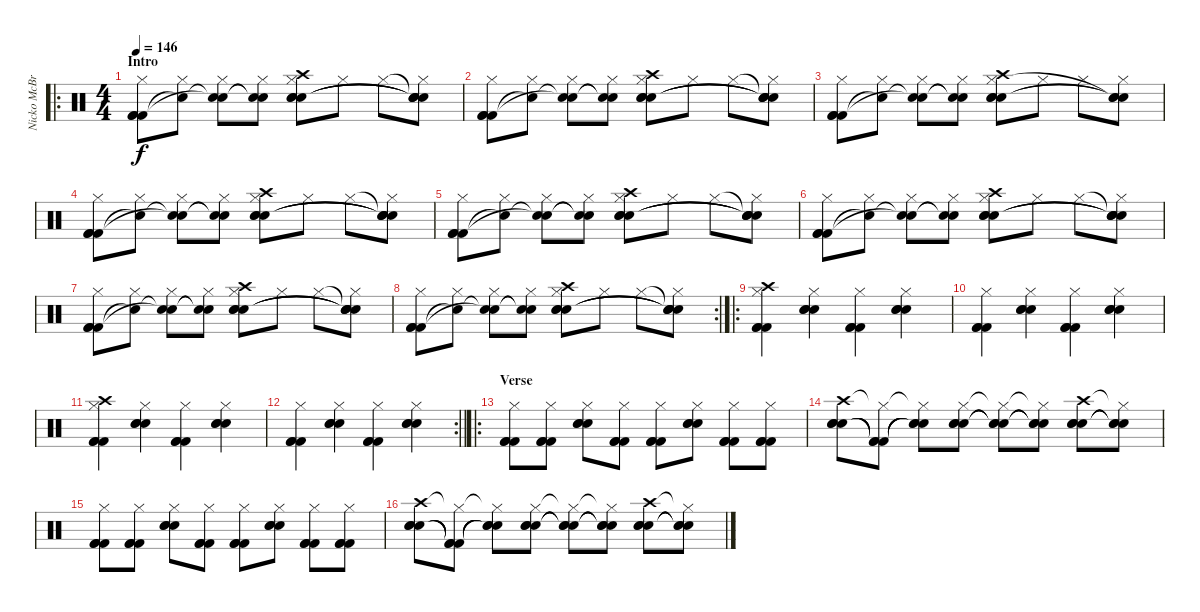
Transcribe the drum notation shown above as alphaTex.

\track ("Nicko McBrain" "Nicko McBr") {instrument percussion}
\staff {score}
\articulation defaults
\ro
\ts (4 4)
\section ("" "Intro")
\tempo 146
\clef neutral
\ks c
("Hi-Hat (closed)" "Kick (hit) 2" "Kick (hit) 2" "Kick (hit) 2").8{dy f} ("Hi-Hat (closed)" "Snare (hit)"{t}).8 ("Hi-Hat (closed)" "Snare (hit)"{t} "Snare (hit)"{t}).8 ("Hi-Hat (closed)" "Snare (hit)"{t} "Snare (hit)"{t}).8 ("Crash high (hit)" "Hi-Hat (closed)" "Snare (hit) 2" "Snare (hit) 2" "Snare (hit) 2").8 "Hi-Hat (closed)".8 "Hi-Hat (closed)".8 ("Snare (hit)"{t} "Hi-Hat (closed)" "Snare (hit)"{t} "Snare (hit)"{t} "Snare (hit)"{t}).8 |
("Hi-Hat (closed)" "Kick (hit) 2" "Kick (hit) 2" "Kick (hit) 2").8 ("Hi-Hat (closed)" "Snare (hit)"{t}).8 ("Hi-Hat (closed)" "Snare (hit)"{t} "Snare (hit)"{t}).8 ("Hi-Hat (closed)" "Snare (hit)"{t} "Snare (hit)"{t}).8 ("Crash high (hit)" "Hi-Hat (closed)" "Snare (hit) 2" "Snare (hit) 2" "Snare (hit) 2").8 "Hi-Hat (closed)".8 "Hi-Hat (closed)".8 ("Snare (hit)"{t} "Hi-Hat (closed)" "Snare (hit)"{t} "Snare (hit)"{t} "Snare (hit)"{t}).8 |
("Hi-Hat (closed)" "Kick (hit) 2" "Kick (hit) 2" "Kick (hit) 2").8 ("Hi-Hat (closed)" "Snare (hit)"{t}).8 ("Hi-Hat (closed)" "Snare (hit)"{t} "Snare (hit)"{t}).8 ("Hi-Hat (closed)" "Snare (hit)"{t} "Snare (hit)"{t}).8 ("Crash high (hit)" "Hi-Hat (closed)" "Snare (hit) 2" "Snare (hit) 2" "Snare (hit) 2").8 "Hi-Hat (closed)".8 "Hi-Hat (closed)".8 ("Hi-Hat (closed)" "Snare (hit)"{t} "Snare (hit)"{t} "Snare (hit)"{t}).8 |
("Hi-Hat (closed)" "Kick (hit) 2" "Kick (hit) 2" "Kick (hit) 2").8 ("Hi-Hat (closed)" "Snare (hit)"{t}).8 ("Hi-Hat (closed)" "Snare (hit)"{t} "Snare (hit)"{t}).8 ("Hi-Hat (closed)" "Snare (hit)"{t} "Snare (hit)"{t}).8 ("Crash high (hit)" "Hi-Hat (closed)" "Snare (hit) 2" "Snare (hit) 2" "Snare (hit) 2").8 "Hi-Hat (closed)".8 "Hi-Hat (closed)".8 ("Snare (hit)"{t} "Hi-Hat (closed)" "Snare (hit)"{t} "Snare (hit)"{t} "Snare (hit)"{t}).8 |
("Hi-Hat (closed)" "Kick (hit) 2" "Kick (hit) 2" "Kick (hit) 2").8 ("Hi-Hat (closed)" "Snare (hit)"{t}).8 ("Hi-Hat (closed)" "Snare (hit)"{t} "Snare (hit)"{t}).8 ("Hi-Hat (closed)" "Snare (hit)"{t} "Snare (hit)"{t}).8 ("Crash high (hit)" "Hi-Hat (closed)" "Snare (hit) 2" "Snare (hit) 2" "Snare (hit) 2").8 "Hi-Hat (closed)".8 "Hi-Hat (closed)".8 ("Snare (hit)"{t} "Hi-Hat (closed)" "Snare (hit)"{t} "Snare (hit)"{t} "Snare (hit)"{t}).8 |
("Hi-Hat (closed)" "Kick (hit) 2" "Kick (hit) 2" "Kick (hit) 2").8 ("Hi-Hat (closed)" "Snare (hit)"{t}).8 ("Hi-Hat (closed)" "Snare (hit)"{t} "Snare (hit)"{t}).8 ("Hi-Hat (closed)" "Snare (hit)"{t} "Snare (hit)"{t}).8 ("Crash high (hit)" "Hi-Hat (closed)" "Snare (hit) 2" "Snare (hit) 2" "Snare (hit) 2").8 "Hi-Hat (closed)".8 "Hi-Hat (closed)".8 ("Snare (hit)"{t} "Hi-Hat (closed)" "Snare (hit)"{t} "Snare (hit)"{t} "Snare (hit)"{t}).8 |
("Hi-Hat (closed)" "Kick (hit) 2" "Kick (hit) 2" "Kick (hit) 2").8 ("Hi-Hat (closed)" "Snare (hit)"{t}).8 ("Hi-Hat (closed)" "Snare (hit)"{t} "Snare (hit)"{t}).8 ("Hi-Hat (closed)" "Snare (hit)"{t} "Snare (hit)"{t}).8 ("Crash high (hit)" "Hi-Hat (closed)" "Snare (hit) 2" "Snare (hit) 2" "Snare (hit) 2").8 "Hi-Hat (closed)".8 "Hi-Hat (closed)".8 ("Snare (hit)"{t} "Hi-Hat (closed)" "Snare (hit)"{t} "Snare (hit)"{t} "Snare (hit)"{t}).8 |
\rc 2
("Hi-Hat (closed)" "Kick (hit) 2" "Kick (hit) 2" "Kick (hit) 2").8 ("Hi-Hat (closed)" "Snare (hit)"{t}).8 ("Hi-Hat (closed)" "Snare (hit)"{t} "Snare (hit)"{t}).8 ("Hi-Hat (closed)" "Snare (hit)"{t} "Snare (hit)"{t}).8 ("Crash high (hit)" "Hi-Hat (closed)" "Snare (hit) 2" "Snare (hit) 2" "Snare (hit) 2").8 "Hi-Hat (closed)".8 "Hi-Hat (closed)".8 ("Snare (hit)"{t} "Hi-Hat (closed)" "Snare (hit)"{t} "Snare (hit)"{t} "Snare (hit)"{t}).8 |
\ro
("Crash high (hit)" "Hi-Hat (closed)" "Kick (hit) 2" "Kick (hit) 2" "Kick (hit) 2").4 ("Hi-Hat (closed)" "Snare (hit) 2" "Snare (hit) 2" "Snare (hit) 2").4 ("Hi-Hat (closed)" "Kick (hit) 2" "Kick (hit) 2" "Kick (hit) 2").4 ("Hi-Hat (closed)" "Snare (hit) 2" "Snare (hit) 2" "Snare (hit) 2").4 |
("Hi-Hat (closed)" "Kick (hit) 2" "Kick (hit) 2" "Kick (hit) 2").4 ("Hi-Hat (closed)" "Snare (hit) 2" "Snare (hit) 2" "Snare (hit) 2").4 ("Hi-Hat (closed)" "Kick (hit) 2" "Kick (hit) 2" "Kick (hit) 2").4 ("Hi-Hat (closed)" "Snare (hit) 2" "Snare (hit) 2" "Snare (hit) 2").4 |
("Crash high (hit)" "Hi-Hat (closed)" "Kick (hit) 2" "Kick (hit) 2" "Kick (hit) 2").4 ("Hi-Hat (closed)" "Snare (hit) 2" "Snare (hit) 2" "Snare (hit) 2").4 ("Hi-Hat (closed)" "Kick (hit) 2" "Kick (hit) 2" "Kick (hit) 2").4 ("Hi-Hat (closed)" "Snare (hit) 2" "Snare (hit) 2" "Snare (hit) 2").4 |
\rc 2
\barLineRight lightlight
("Hi-Hat (closed)" "Kick (hit) 2" "Kick (hit) 2" "Kick (hit) 2").4 ("Hi-Hat (closed)" "Snare (hit) 2" "Snare (hit) 2" "Snare (hit) 2").4 ("Hi-Hat (closed)" "Kick (hit) 2" "Kick (hit) 2" "Kick (hit) 2").4 ("Hi-Hat (closed)" "Snare (hit) 2" "Snare (hit) 2" "Snare (hit) 2").4 |
\ro
\section ("" "Verse")
("Hi-Hat (closed)" "Kick (hit) 2" "Kick (hit) 2" "Kick (hit) 2").8 ("Hi-Hat (closed)" "Kick (hit) 2" "Kick (hit) 2" "Kick (hit) 2").8 ("Hi-Hat (closed)" "Snare (hit) 2" "Snare (hit) 2" "Snare (hit) 2").8 ("Hi-Hat (closed)" "Kick (hit) 2" "Kick (hit) 2" "Kick (hit) 2").8 ("Hi-Hat (closed)" "Kick (hit) 2" "Kick (hit) 2" "Kick (hit) 2").8 ("Hi-Hat (closed)" "Snare (hit) 2" "Snare (hit) 2" "Snare (hit) 2").8 ("Hi-Hat (closed)" "Kick (hit) 2" "Kick (hit) 2" "Kick (hit) 2").8 ("Hi-Hat (closed)" "Kick (hit) 2" "Kick (hit) 2" "Kick (hit) 2").8 |
("Crash high (hit)" "Snare (hit) 2" "Snare (hit) 2" "Snare (hit) 2").8 ("Hi-Hat (closed)"{t} "Kick (hit) 2"{t} "Kick (hit) 2"{t} "Kick (hit) 2"{t}).8 ("Hi-Hat (closed)"{t} "Snare (hit) 2"{t} "Snare (hit) 2"{t} "Snare (hit) 2"{t}).8 ("Hi-Hat (closed)" "Snare (hit) 2" "Snare (hit) 2" "Snare (hit) 2").8 ("Hi-Hat (closed)"{t} "Snare (hit) 2"{t} "Snare (hit) 2"{t} "Snare (hit) 2"{t}).8 ("Hi-Hat (closed)"{t} "Snare (hit) 2"{t} "Snare (hit) 2"{t} "Snare (hit) 2"{t}).8 ("Crash high (hit)" "Snare (hit) 2" "Snare (hit) 2" "Snare (hit) 2").8 ("Hi-Hat (closed)"{t} "Snare (hit) 2"{t} "Snare (hit) 2"{t} "Snare (hit) 2"{t}).8 |
("Hi-Hat (closed)" "Kick (hit) 2" "Kick (hit) 2" "Kick (hit) 2").8 ("Hi-Hat (closed)" "Kick (hit) 2" "Kick (hit) 2" "Kick (hit) 2").8 ("Hi-Hat (closed)" "Snare (hit) 2" "Snare (hit) 2" "Snare (hit) 2").8 ("Hi-Hat (closed)" "Kick (hit) 2" "Kick (hit) 2" "Kick (hit) 2").8 ("Hi-Hat (closed)" "Kick (hit) 2" "Kick (hit) 2" "Kick (hit) 2").8 ("Hi-Hat (closed)" "Snare (hit) 2" "Snare (hit) 2" "Snare (hit) 2").8 ("Hi-Hat (closed)" "Kick (hit) 2" "Kick (hit) 2" "Kick (hit) 2").8 ("Hi-Hat (closed)" "Kick (hit) 2" "Kick (hit) 2" "Kick (hit) 2").8 |
("Crash high (hit)" "Snare (hit) 2" "Snare (hit) 2" "Snare (hit) 2").8 ("Hi-Hat (closed)"{t} "Kick (hit) 2"{t} "Kick (hit) 2"{t} "Kick (hit) 2"{t}).8 ("Hi-Hat (closed)"{t} "Snare (hit) 2"{t} "Snare (hit) 2"{t} "Snare (hit) 2"{t}).8 ("Hi-Hat (closed)" "Snare (hit) 2" "Snare (hit) 2" "Snare (hit) 2").8 ("Hi-Hat (closed)"{t} "Snare (hit) 2"{t} "Snare (hit) 2"{t} "Snare (hit) 2"{t}).8 ("Hi-Hat (closed)"{t} "Snare (hit) 2"{t} "Snare (hit) 2"{t} "Snare (hit) 2"{t}).8 ("Crash high (hit)" "Snare (hit) 2" "Snare (hit) 2" "Snare (hit) 2").8 ("Hi-Hat (closed)"{t} "Snare (hit) 2"{t} "Snare (hit) 2"{t} "Snare (hit) 2"{t}).8
